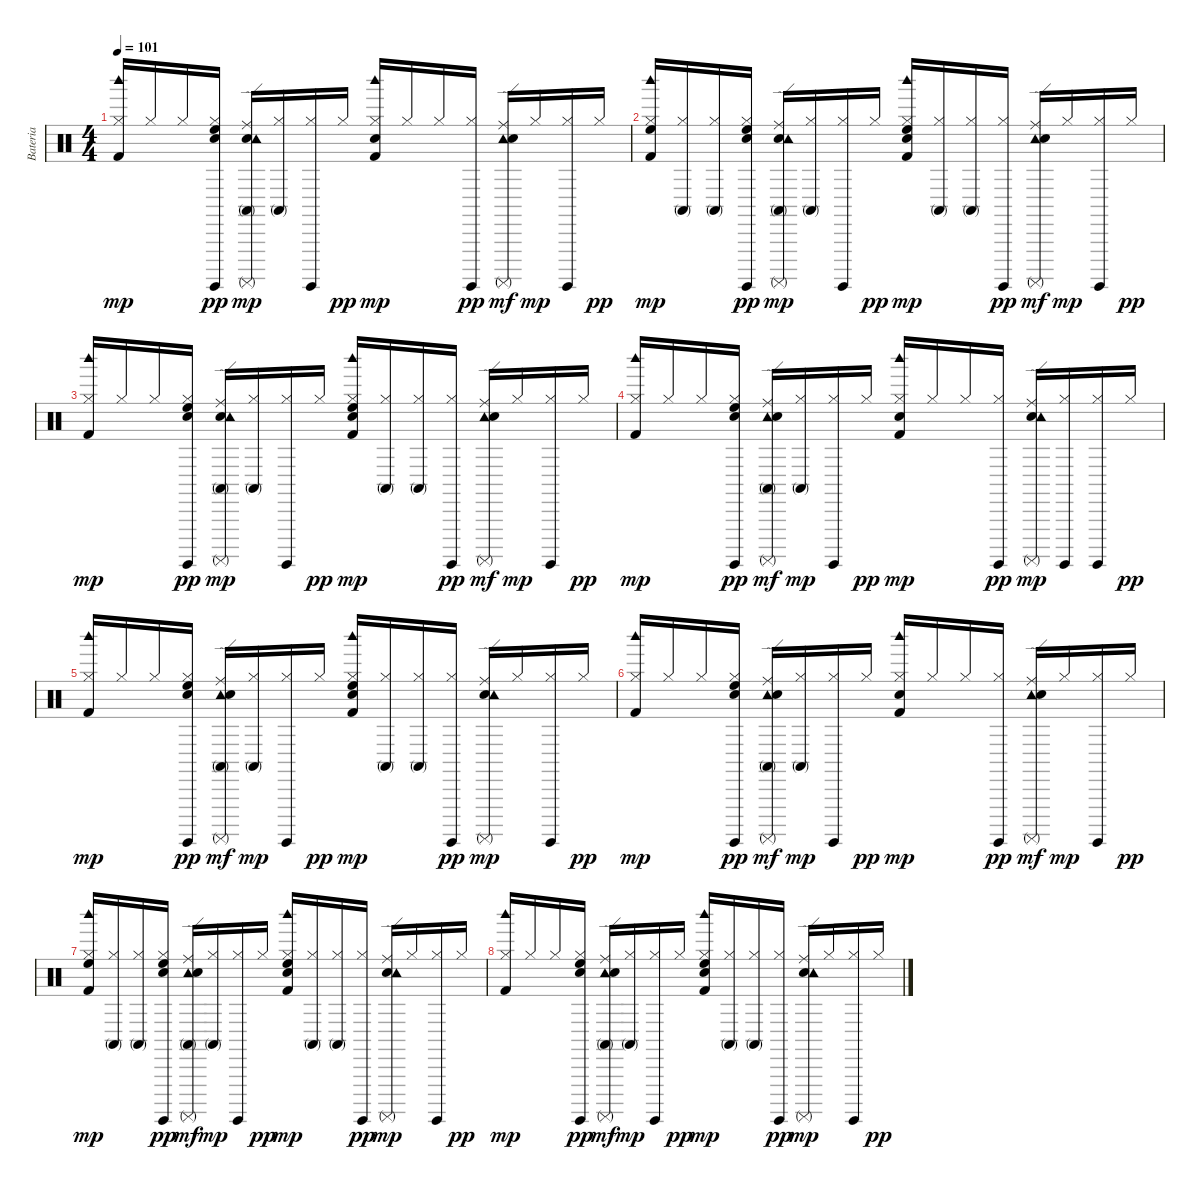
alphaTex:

\track ("Bateria" "Bateria") {instrument percussion}
\staff {score}
\articulation defaults
\ts (4 4)
\tempo 101
\clef neutral
\ks c
("Kick (hit) 2" "Hi-Hat (closed)" "Woodblock high (hit)").16{dy mp} "Hi-Hat (closed)".16 "Hi-Hat (closed)".16 ("High Floor Tom (hit)" "Snare (hit)" "Surdo (hit)" "Hi-Hat (closed)").16{dy pp} ("Conga high (mute)" "Ride (edge)" "Electric Snare (hit)" "Surdo (mute)" "Tambourine (hit)").16{dy mp} ("Conga high (mute)" "Hi-Hat (closed)").16 ("Surdo (hit)" "Hi-Hat (closed)").16 "Hi-Hat (closed)".16{dy pp} ("Snare (hit)" "Hi-Hat (closed)" "Woodblock high (hit)" "Kick (hit) 2").16{dy mp} "Hi-Hat (closed)".16 "Hi-Hat (closed)".16 ("Surdo (hit)" "Hi-Hat (closed)").16{dy pp} ("Ride (edge)" "Tambourine (hit)" "Electric Snare (hit)" "Surdo (mute)").16{dy mf} "Hi-Hat (closed)".16{dy mp} ("Surdo (hit)" "Hi-Hat (closed)").16 "Hi-Hat (closed)".16{dy pp} |
("High Floor Tom (hit)" "Kick (hit) 2" "Hi-Hat (closed)" "Woodblock high (hit)").16{dy mp} ("Conga high (mute)" "Hi-Hat (closed)").16 ("Conga high (mute)" "Hi-Hat (closed)").16 ("High Floor Tom (hit)" "Snare (hit)" "Surdo (hit)" "Hi-Hat (closed)").16{dy pp} ("Conga high (mute)" "Ride (edge)" "Electric Snare (hit)" "Surdo (mute)" "Tambourine (hit)").16{dy mp} ("Conga high (mute)" "Hi-Hat (closed)").16 ("Surdo (hit)" "Hi-Hat (closed)").16 "Hi-Hat (closed)".16{dy pp} ("High Floor Tom (hit)" "Snare (hit)" "Kick (hit) 2" "Hi-Hat (closed)" "Woodblock high (hit)").16{dy mp} ("Conga high (mute)" "Hi-Hat (closed)").16 ("Conga high (mute)" "Hi-Hat (closed)").16 ("Surdo (hit)" "Hi-Hat (closed)").16{dy pp} ("Ride (edge)" "Tambourine (hit)" "Electric Snare (hit)" "Surdo (mute)").16{dy mf} "Hi-Hat (closed)".16{dy mp} ("Surdo (hit)" "Hi-Hat (closed)").16 "Hi-Hat (closed)".16{dy pp} |
("Kick (hit) 2" "Hi-Hat (closed)" "Woodblock high (hit)").16{dy mp} "Hi-Hat (closed)".16 "Hi-Hat (closed)".16 ("High Floor Tom (hit)" "Snare (hit)" "Surdo (hit)" "Hi-Hat (closed)").16{dy pp} ("Conga high (mute)" "Ride (edge)" "Electric Snare (hit)" "Surdo (mute)" "Tambourine (hit)").16{dy mp} ("Conga high (mute)" "Hi-Hat (closed)").16 ("Surdo (hit)" "Hi-Hat (closed)").16 "Hi-Hat (closed)".16{dy pp} ("High Floor Tom (hit)" "Snare (hit)" "Hi-Hat (closed)" "Woodblock high (hit)" "Kick (hit) 2").16{dy mp} ("Conga high (mute)" "Hi-Hat (closed)").16 ("Conga high (mute)" "Hi-Hat (closed)").16 ("Surdo (hit)" "Hi-Hat (closed)").16{dy pp} ("Ride (edge)" "Tambourine (hit)" "Electric Snare (hit)" "Surdo (mute)").16{dy mf} "Hi-Hat (closed)".16{dy mp} ("Surdo (hit)" "Hi-Hat (closed)").16 "Hi-Hat (closed)".16{dy pp} |
("Woodblock high (hit)" "Kick (hit) 2" "Hi-Hat (closed)").16{dy mp} "Hi-Hat (closed)".16 "Hi-Hat (closed)".16 ("High Floor Tom (hit)" "Snare (hit)" "Surdo (hit)" "Hi-Hat (closed)").16{dy pp} ("Conga high (mute)" "Ride (edge)" "Tambourine (hit)" "Electric Snare (hit)" "Surdo (mute)").16{dy mf} ("Conga high (mute)" "Hi-Hat (closed)").16{dy mp} ("Surdo (hit)" "Hi-Hat (closed)").16 "Hi-Hat (closed)".16{dy pp} ("Snare (hit)" "Hi-Hat (closed)" "Woodblock high (hit)" "Kick (hit) 2").16{dy mp} "Hi-Hat (closed)".16 "Hi-Hat (closed)".16 ("Surdo (hit)" "Hi-Hat (closed)").16{dy pp} ("Ride (edge)" "Electric Snare (hit)" "Surdo (mute)" "Tambourine (hit)").16{dy mp} ("Surdo (hit)" "Hi-Hat (closed)").16 ("Surdo (hit)" "Hi-Hat (closed)").16 "Hi-Hat (closed)".16{dy pp} |
("Kick (hit) 2" "Hi-Hat (closed)" "Woodblock high (hit)").16{dy mp} "Hi-Hat (closed)".16 "Hi-Hat (closed)".16 ("High Floor Tom (hit)" "Snare (hit)" "Surdo (hit)" "Hi-Hat (closed)").16{dy pp} ("Conga high (mute)" "Ride (edge)" "Surdo (mute)" "Tambourine (hit)" "Electric Snare (hit)").16{dy mf} ("Conga high (mute)" "Hi-Hat (closed)").16{dy mp} ("Surdo (hit)" "Hi-Hat (closed)").16 "Hi-Hat (closed)".16{dy pp} ("High Floor Tom (hit)" "Snare (hit)" "Kick (hit) 2" "Hi-Hat (closed)" "Woodblock high (hit)").16{dy mp} ("Conga high (mute)" "Hi-Hat (closed)").16 ("Conga high (mute)" "Hi-Hat (closed)").16 ("Surdo (hit)" "Hi-Hat (closed)").16{dy pp} ("Ride (edge)" "Electric Snare (hit)" "Surdo (mute)" "Tambourine (hit)").16{dy mp} "Hi-Hat (closed)".16 ("Surdo (hit)" "Hi-Hat (closed)").16 "Hi-Hat (closed)".16{dy pp} |
("Hi-Hat (closed)" "Woodblock high (hit)" "Kick (hit) 2").16{dy mp} "Hi-Hat (closed)".16 "Hi-Hat (closed)".16 ("High Floor Tom (hit)" "Snare (hit)" "Surdo (hit)" "Hi-Hat (closed)").16{dy pp} ("Conga high (mute)" "Ride (edge)" "Surdo (mute)" "Tambourine (hit)" "Electric Snare (hit)").16{dy mf} ("Conga high (mute)" "Hi-Hat (closed)").16{dy mp} ("Surdo (hit)" "Hi-Hat (closed)").16 "Hi-Hat (closed)".16{dy pp} ("Snare (hit)" "Kick (hit) 2" "Hi-Hat (closed)" "Woodblock high (hit)").16{dy mp} "Hi-Hat (closed)".16 "Hi-Hat (closed)".16 ("Surdo (hit)" "Hi-Hat (closed)").16{dy pp} ("Ride (edge)" "Surdo (mute)" "Tambourine (hit)" "Electric Snare (hit)").16{dy mf} "Hi-Hat (closed)".16{dy mp} ("Surdo (hit)" "Hi-Hat (closed)").16 "Hi-Hat (closed)".16{dy pp} |
("High Floor Tom (hit)" "Woodblock high (hit)" "Kick (hit) 2" "Hi-Hat (closed)").16{dy mp} ("Conga high (mute)" "Hi-Hat (closed)").16 ("Conga high (mute)" "Hi-Hat (closed)").16 ("High Floor Tom (hit)" "Snare (hit)" "Surdo (hit)" "Hi-Hat (closed)").16{dy pp} ("Conga high (mute)" "Ride (edge)" "Tambourine (hit)" "Electric Snare (hit)" "Surdo (mute)").16{dy mf} ("Conga high (mute)" "Hi-Hat (closed)").16{dy mp} ("Surdo (hit)" "Hi-Hat (closed)").16 "Hi-Hat (closed)".16{dy pp} ("High Floor Tom (hit)" "Snare (hit)" "Kick (hit) 2" "Hi-Hat (closed)" "Woodblock high (hit)").16{dy mp} ("Conga high (mute)" "Hi-Hat (closed)").16 ("Conga high (mute)" "Hi-Hat (closed)").16 ("Surdo (hit)" "Hi-Hat (closed)").16{dy pp} ("Ride (edge)" "Electric Snare (hit)" "Surdo (mute)" "Tambourine (hit)").16{dy mp} "Hi-Hat (closed)".16 ("Surdo (hit)" "Hi-Hat (closed)").16 "Hi-Hat (closed)".16{dy pp} |
("Kick (hit) 2" "Hi-Hat (closed)" "Woodblock high (hit)").16{dy mp} "Hi-Hat (closed)".16 "Hi-Hat (closed)".16 ("High Floor Tom (hit)" "Snare (hit)" "Surdo (hit)" "Hi-Hat (closed)").16{dy pp} ("Conga high (mute)" "Ride (edge)" "Tambourine (hit)" "Electric Snare (hit)" "Surdo (mute)").16{dy mf} ("Conga high (mute)" "Hi-Hat (closed)").16{dy mp} ("Surdo (hit)" "Hi-Hat (closed)").16 "Hi-Hat (closed)".16{dy pp} ("High Floor Tom (hit)" "Snare (hit)" "Hi-Hat (closed)" "Woodblock high (hit)" "Kick (hit) 2").16{dy mp} ("Conga high (mute)" "Hi-Hat (closed)").16 ("Conga high (mute)" "Hi-Hat (closed)").16 ("Surdo (hit)" "Hi-Hat (closed)").16{dy pp} ("Ride (edge)" "Electric Snare (hit)" "Surdo (mute)" "Tambourine (hit)").16{dy mp} "Hi-Hat (closed)".16 ("Surdo (hit)" "Hi-Hat (closed)").16 "Hi-Hat (closed)".16{dy pp}
